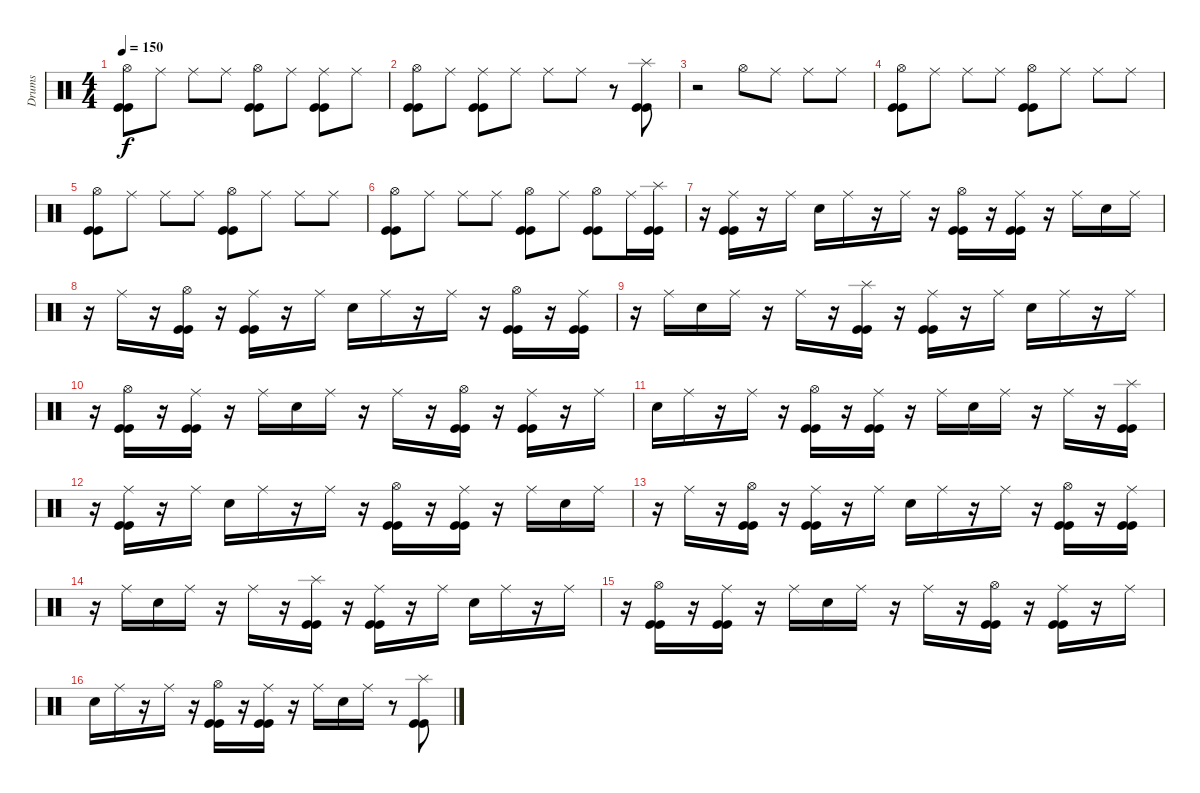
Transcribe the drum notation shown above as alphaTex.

\track ("Drums" "Drums") {instrument percussion}
\staff {score}
\articulation defaults
\ts (4 4)
\tempo 150
\clef neutral
\ks c
("Hi-Hat (open)" "Kick (hit)" "Kick (hit)").8{dy f} "Ride (middle)".8 "Ride (middle)".8 "Ride (middle)".8 ("Hi-Hat (open)" "Kick (hit)" "Kick (hit)").8 "Ride (middle)".8 ("Ride (middle)" "Kick (hit)" "Kick (hit)").8 "Ride (middle)".8 |
("Hi-Hat (open)" "Kick (hit)" "Kick (hit)").8 "Ride (middle)".8 ("Ride (middle)" "Kick (hit)" "Kick (hit)").8 "Ride (middle)".8 "Ride (middle)".8 "Ride (middle)".8 r.8 ("Splash (hit)" "Kick (hit)" "Kick (hit)").8 |
r.2 "Hi-Hat (open)".8 "Ride (middle)".8 "Ride (middle)".8 "Ride (middle)".8 |
("Hi-Hat (open)" "Kick (hit)" "Kick (hit)").8 "Ride (middle)".8 "Ride (middle)".8 "Ride (middle)".8 ("Hi-Hat (open)" "Kick (hit)" "Kick (hit)").8 "Ride (middle)".8 "Ride (middle)".8 "Ride (middle)".8 |
("Hi-Hat (open)" "Kick (hit)" "Kick (hit)").8 "Ride (middle)".8 "Ride (middle)".8 "Ride (middle)".8 ("Hi-Hat (open)" "Kick (hit)" "Kick (hit)").8 "Ride (middle)".8 "Ride (middle)".8 "Ride (middle)".8 |
("Hi-Hat (open)" "Kick (hit)" "Kick (hit)").8 "Ride (middle)".8 "Ride (middle)".8 "Ride (middle)".8 ("Hi-Hat (open)" "Kick (hit)" "Kick (hit)").8 "Ride (middle)".8 ("Hi-Hat (open)" "Kick (hit)" "Kick (hit)").8 "Ride (middle)".16 ("Splash (hit)" "Kick (hit)" "Kick (hit)").16 |
r.16 ("Ride (middle)" "Kick (hit)" "Kick (hit)").16 r.16 "Ride (middle)".16 "Snare (hit) 2".16 "Ride (middle)".16 r.16 "Ride (middle)".16 r.16 ("Hi-Hat (open)" "Kick (hit)" "Kick (hit)").16 r.16 ("Ride (middle)" "Kick (hit)" "Kick (hit)").16 r.16 "Ride (middle)".16 "Snare (hit) 2".16 "Ride (middle)".16 |
r.16 "Ride (middle)".16 r.16 ("Hi-Hat (open)" "Kick (hit)" "Kick (hit)").16 r.16 ("Ride (middle)" "Kick (hit)" "Kick (hit)").16 r.16 "Ride (middle)".16 "Snare (hit) 2".16 "Ride (middle)".16 r.16 "Ride (middle)".16 r.16 ("Hi-Hat (open)" "Kick (hit)" "Kick (hit)").16 r.16 ("Ride (middle)" "Kick (hit)" "Kick (hit)").16 |
r.16 "Ride (middle)".16 "Snare (hit) 2".16 "Ride (middle)".16 r.16 "Ride (middle)".16 r.16 ("Splash (hit)" "Kick (hit)" "Kick (hit)").16 r.16 ("Ride (middle)" "Kick (hit)" "Kick (hit)").16 r.16 "Ride (middle)".16 "Snare (hit) 2".16 "Ride (middle)".16 r.16 "Ride (middle)".16 |
r.16 ("Hi-Hat (open)" "Kick (hit)" "Kick (hit)").16 r.16 ("Ride (middle)" "Kick (hit)" "Kick (hit)").16 r.16 "Ride (middle)".16 "Snare (hit) 2".16 "Ride (middle)".16 r.16 "Ride (middle)".16 r.16 ("Hi-Hat (open)" "Kick (hit)" "Kick (hit)").16 r.16 ("Ride (middle)" "Kick (hit)" "Kick (hit)").16 r.16 "Ride (middle)".16 |
"Snare (hit) 2".16 "Ride (middle)".16 r.16 "Ride (middle)".16 r.16 ("Hi-Hat (open)" "Kick (hit)" "Kick (hit)").16 r.16 ("Ride (middle)" "Kick (hit)" "Kick (hit)").16 r.16 "Ride (middle)".16 "Snare (hit) 2".16 "Ride (middle)".16 r.16 "Ride (middle)".16 r.16 ("Splash (hit)" "Kick (hit)" "Kick (hit)").16 |
r.16 ("Ride (middle)" "Kick (hit)" "Kick (hit)").16 r.16 "Ride (middle)".16 "Snare (hit) 2".16 "Ride (middle)".16 r.16 "Ride (middle)".16 r.16 ("Hi-Hat (open)" "Kick (hit)" "Kick (hit)").16 r.16 ("Ride (middle)" "Kick (hit)" "Kick (hit)").16 r.16 "Ride (middle)".16 "Snare (hit) 2".16 "Ride (middle)".16 |
r.16 "Ride (middle)".16 r.16 ("Hi-Hat (open)" "Kick (hit)" "Kick (hit)").16 r.16 ("Ride (middle)" "Kick (hit)" "Kick (hit)").16 r.16 "Ride (middle)".16 "Snare (hit) 2".16 "Ride (middle)".16 r.16 "Ride (middle)".16 r.16 ("Hi-Hat (open)" "Kick (hit)" "Kick (hit)").16 r.16 ("Ride (middle)" "Kick (hit)" "Kick (hit)").16 |
r.16 "Ride (middle)".16 "Snare (hit) 2".16 "Ride (middle)".16 r.16 "Ride (middle)".16 r.16 ("Splash (hit)" "Kick (hit)" "Kick (hit)").16 r.16 ("Ride (middle)" "Kick (hit)" "Kick (hit)").16 r.16 "Ride (middle)".16 "Snare (hit) 2".16 "Ride (middle)".16 r.16 "Ride (middle)".16 |
r.16 ("Hi-Hat (open)" "Kick (hit)" "Kick (hit)").16 r.16 ("Ride (middle)" "Kick (hit)" "Kick (hit)").16 r.16 "Ride (middle)".16 "Snare (hit) 2".16 "Ride (middle)".16 r.16 "Ride (middle)".16 r.16 ("Hi-Hat (open)" "Kick (hit)" "Kick (hit)").16 r.16 ("Ride (middle)" "Kick (hit)" "Kick (hit)").16 r.16 "Ride (middle)".16 |
"Snare (hit) 2".16 "Ride (middle)".16 r.16 "Ride (middle)".16 r.16 ("Hi-Hat (open)" "Kick (hit)" "Kick (hit)").16 r.16 ("Ride (middle)" "Kick (hit)" "Kick (hit)").16 r.16 "Ride (middle)".16 "Snare (hit) 2".16 "Ride (middle)".16 r.8 ("Splash (hit)" "Kick (hit)" "Kick (hit)").8
